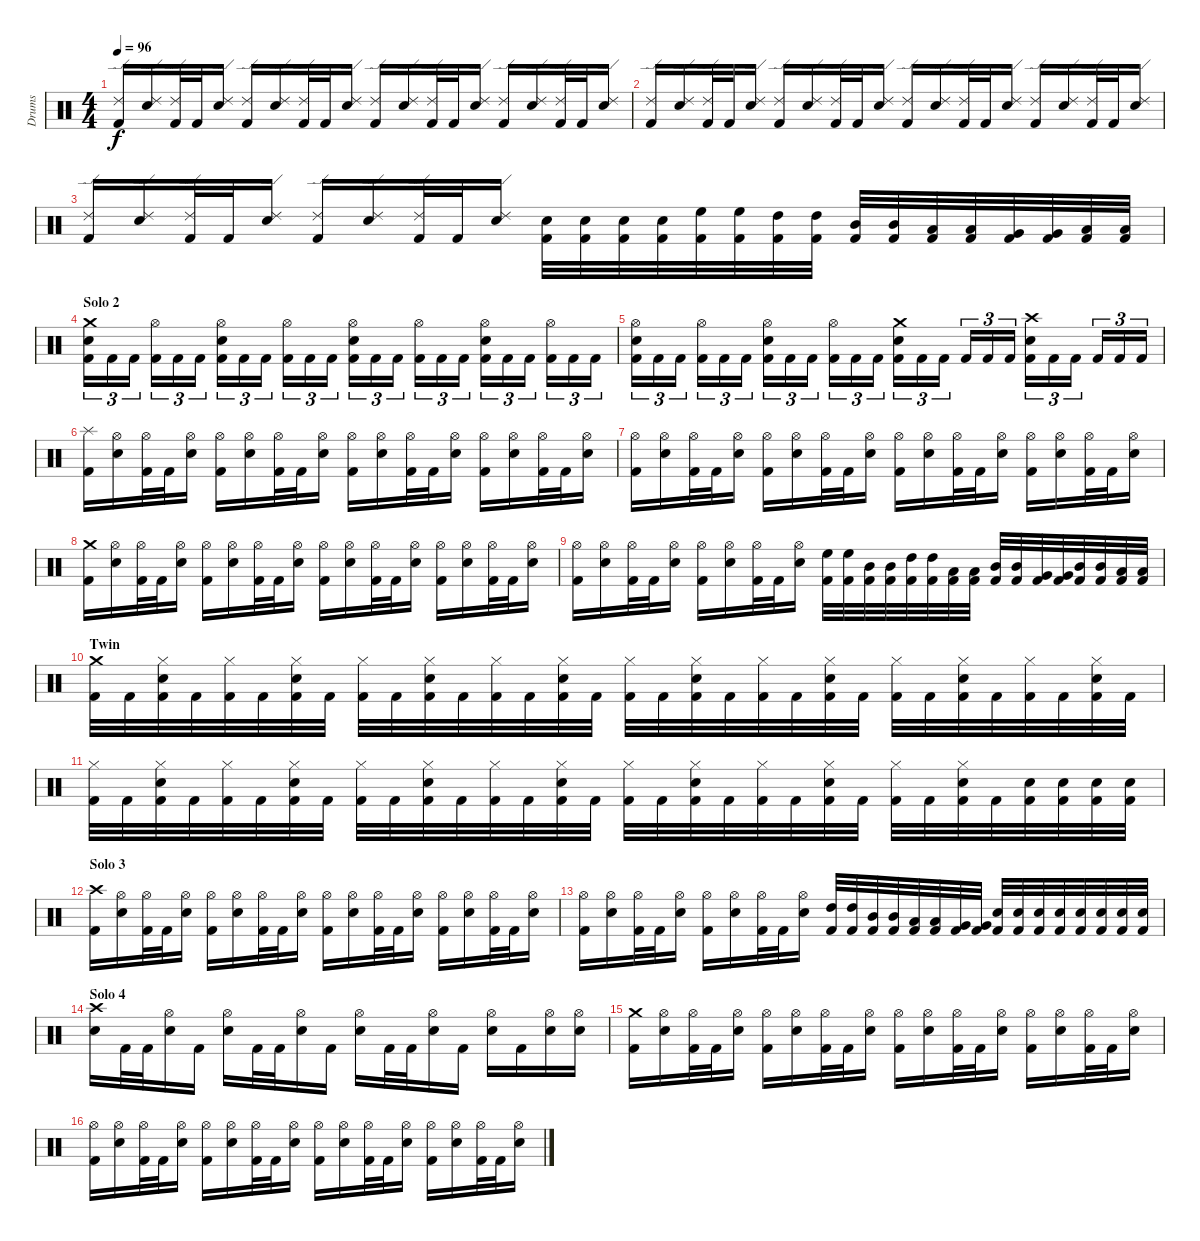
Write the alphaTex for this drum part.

\track ("Drums" "Drums") {instrument percussion}
\staff {score}
\articulation defaults
\ts (4 4)
\tempo 96
\clef neutral
\ks c
("Kick (hit) 2" "Ride (edge) 2").16{dy f} ("Snare (hit) 2" "Ride (edge) 2").16 ("Kick (hit) 2" "Ride (edge) 2").32 "Kick (hit) 2".32 ("Snare (hit) 2" "Ride (edge) 2").16 ("Kick (hit) 2" "Ride (edge) 2").16 ("Snare (hit) 2" "Ride (edge) 2").16 ("Kick (hit) 2" "Ride (edge) 2").32 "Kick (hit) 2".32 ("Snare (hit) 2" "Ride (edge) 2").16 ("Kick (hit) 2" "Ride (edge) 2").16 ("Snare (hit) 2" "Ride (edge) 2").16 ("Kick (hit) 2" "Ride (edge) 2").32 "Kick (hit) 2".32 ("Snare (hit) 2" "Ride (edge) 2").16 ("Kick (hit) 2" "Ride (edge) 2").16 ("Snare (hit) 2" "Ride (edge) 2").16 ("Kick (hit) 2" "Ride (edge) 2").32 "Kick (hit) 2".32 ("Snare (hit) 2" "Ride (edge) 2").16 |
("Kick (hit) 2" "Ride (edge) 2").16 ("Snare (hit) 2" "Ride (edge) 2").16 ("Kick (hit) 2" "Ride (edge) 2").32 "Kick (hit) 2".32 ("Snare (hit) 2" "Ride (edge) 2").16 ("Kick (hit) 2" "Ride (edge) 2").16 ("Snare (hit) 2" "Ride (edge) 2").16 ("Kick (hit) 2" "Ride (edge) 2").32 "Kick (hit) 2".32 ("Snare (hit) 2" "Ride (edge) 2").16 ("Kick (hit) 2" "Ride (edge) 2").16 ("Snare (hit) 2" "Ride (edge) 2").16 ("Kick (hit) 2" "Ride (edge) 2").32 "Kick (hit) 2".32 ("Snare (hit) 2" "Ride (edge) 2").16 ("Kick (hit) 2" "Ride (edge) 2").16 ("Snare (hit) 2" "Ride (edge) 2").16 ("Kick (hit) 2" "Ride (edge) 2").32 "Kick (hit) 2".32 ("Snare (hit) 2" "Ride (edge) 2").16 |
("Kick (hit) 2" "Ride (edge) 2").16 ("Snare (hit) 2" "Ride (edge) 2").16 ("Kick (hit) 2" "Ride (edge) 2").32 "Kick (hit) 2".32 ("Snare (hit) 2" "Ride (edge) 2").16 ("Kick (hit) 2" "Ride (edge) 2").16 ("Snare (hit) 2" "Ride (edge) 2").16 ("Kick (hit) 2" "Ride (edge) 2").32 "Kick (hit) 2".32 ("Snare (hit) 2" "Ride (edge) 2").16 ("Kick (hit) 2" "Snare (hit) 2").32 ("Kick (hit) 2" "Snare (hit) 2").32 ("Kick (hit) 2" "Snare (hit) 2").32 ("Kick (hit) 2" "Snare (hit) 2").32 ("Kick (hit) 2" "High Floor Tom (hit)").32 ("Kick (hit) 2" "High Floor Tom (hit)").32 ("Kick (hit) 2" "High Tom (hit)").32 ("Kick (hit) 2" "High Tom (hit)").32 ("Kick (hit) 2" "Mid Tom (hit)").32 ("Kick (hit) 2" "Mid Tom (hit)").32 ("Kick (hit) 2" "Low Tom (hit)").32 ("Kick (hit) 2" "Low Tom (hit)").32 ("Kick (hit) 2" "Very Low Tom (hit)").32 ("Kick (hit) 2" "Very Low Tom (hit)").32 ("Kick (hit) 2" "Low Floor Tom (hit)").32 ("Kick (hit) 2" "Low Floor Tom (hit)").32 |
\section ("" "Solo 2")
("Kick (hit) 2" "Snare (hit) 2" "Crash medium (hit)").16{tu (3 2)} "Kick (hit) 2".16{tu (3 2)} "Kick (hit) 2".16{tu (3 2)} ("Kick (hit) 2" "Hi-Hat (open)").16{tu (3 2)} "Kick (hit) 2".16{tu (3 2)} "Kick (hit) 2".16{tu (3 2)} ("Kick (hit) 2" "Snare (hit) 2" "Hi-Hat (open)").16{tu (3 2)} "Kick (hit) 2".16{tu (3 2)} "Kick (hit) 2".16{tu (3 2)} ("Kick (hit) 2" "Hi-Hat (open)").16{tu (3 2)} "Kick (hit) 2".16{tu (3 2)} "Kick (hit) 2".16{tu (3 2)} ("Kick (hit) 2" "Snare (hit) 2" "Hi-Hat (open)").16{tu (3 2)} "Kick (hit) 2".16{tu (3 2)} "Kick (hit) 2".16{tu (3 2)} ("Kick (hit) 2" "Hi-Hat (open)").16{tu (3 2)} "Kick (hit) 2".16{tu (3 2)} "Kick (hit) 2".16{tu (3 2)} ("Kick (hit) 2" "Snare (hit) 2" "Hi-Hat (open)").16{tu (3 2)} "Kick (hit) 2".16{tu (3 2)} "Kick (hit) 2".16{tu (3 2)} ("Kick (hit) 2" "Hi-Hat (open)").16{tu (3 2)} "Kick (hit) 2".16{tu (3 2)} "Kick (hit) 2".16{tu (3 2)} |
("Kick (hit) 2" "Snare (hit) 2" "Hi-Hat (open)").16{tu (3 2)} "Kick (hit) 2".16{tu (3 2)} "Kick (hit) 2".16{tu (3 2)} ("Kick (hit) 2" "Hi-Hat (open)").16{tu (3 2)} "Kick (hit) 2".16{tu (3 2)} "Kick (hit) 2".16{tu (3 2)} ("Kick (hit) 2" "Snare (hit) 2" "Hi-Hat (open)").16{tu (3 2)} "Kick (hit) 2".16{tu (3 2)} "Kick (hit) 2".16{tu (3 2)} ("Kick (hit) 2" "Hi-Hat (open)").16{tu (3 2)} "Kick (hit) 2".16{tu (3 2)} "Kick (hit) 2".16{tu (3 2)} ("Kick (hit) 2" "Snare (hit) 2" "Crash medium (hit)").16{tu (3 2)} "Kick (hit) 2".16{tu (3 2)} "Kick (hit) 2".16{tu (3 2)} "Kick (hit) 2".16{tu (3 2)} "Kick (hit) 2".16{tu (3 2)} "Kick (hit) 2".16{tu (3 2)} ("Kick (hit) 2" "Snare (hit) 2" "Crash high (hit)").16{tu (3 2)} "Kick (hit) 2".16{tu (3 2)} "Kick (hit) 2".16{tu (3 2)} "Kick (hit) 2".16{tu (3 2)} "Kick (hit) 2".16{tu (3 2)} "Kick (hit) 2".16{tu (3 2)} |
("Kick (hit) 2" "Splash (hit)").16 ("Snare (hit) 2" "Hi-Hat (open)").16 ("Kick (hit) 2" "Hi-Hat (open)").32 "Kick (hit) 2".32 ("Snare (hit) 2" "Hi-Hat (open)").16 ("Kick (hit) 2" "Hi-Hat (open)").16 ("Snare (hit) 2" "Hi-Hat (open)").16 ("Kick (hit) 2" "Hi-Hat (open)").32 "Kick (hit) 2".32 ("Snare (hit) 2" "Hi-Hat (open)").16 ("Kick (hit) 2" "Hi-Hat (open)").16 ("Snare (hit) 2" "Hi-Hat (open)").16 ("Kick (hit) 2" "Hi-Hat (open)").32 "Kick (hit) 2".32 ("Snare (hit) 2" "Hi-Hat (open)").16 ("Kick (hit) 2" "Hi-Hat (open)").16 ("Snare (hit) 2" "Hi-Hat (open)").16 ("Kick (hit) 2" "Hi-Hat (open)").32 "Kick (hit) 2".32 ("Snare (hit) 2" "Hi-Hat (open)").16 |
("Kick (hit) 2" "Hi-Hat (open)").16 ("Snare (hit) 2" "Hi-Hat (open)").16 ("Kick (hit) 2" "Hi-Hat (open)").32 "Kick (hit) 2".32 ("Snare (hit) 2" "Hi-Hat (open)").16 ("Kick (hit) 2" "Hi-Hat (open)").16 ("Snare (hit) 2" "Hi-Hat (open)").16 ("Kick (hit) 2" "Hi-Hat (open)").32 "Kick (hit) 2".32 ("Snare (hit) 2" "Hi-Hat (open)").16 ("Kick (hit) 2" "Hi-Hat (open)").16 ("Snare (hit) 2" "Hi-Hat (open)").16 ("Kick (hit) 2" "Hi-Hat (open)").32 "Kick (hit) 2".32 ("Snare (hit) 2" "Hi-Hat (open)").16 ("Kick (hit) 2" "Hi-Hat (open)").16 ("Snare (hit) 2" "Hi-Hat (open)").16 ("Kick (hit) 2" "Hi-Hat (open)").32 "Kick (hit) 2".32 ("Snare (hit) 2" "Hi-Hat (open)").16 |
("Kick (hit) 2" "Crash medium (hit)").16 ("Snare (hit) 2" "Hi-Hat (open)").16 ("Kick (hit) 2" "Hi-Hat (open)").32 "Kick (hit) 2".32 ("Snare (hit) 2" "Hi-Hat (open)").16 ("Kick (hit) 2" "Hi-Hat (open)").16 ("Snare (hit) 2" "Hi-Hat (open)").16 ("Kick (hit) 2" "Hi-Hat (open)").32 "Kick (hit) 2".32 ("Snare (hit) 2" "Hi-Hat (open)").16 ("Kick (hit) 2" "Hi-Hat (open)").16 ("Snare (hit) 2" "Hi-Hat (open)").16 ("Kick (hit) 2" "Hi-Hat (open)").32 "Kick (hit) 2".32 ("Snare (hit) 2" "Hi-Hat (open)").16 ("Kick (hit) 2" "Hi-Hat (open)").16 ("Snare (hit) 2" "Hi-Hat (open)").16 ("Kick (hit) 2" "Hi-Hat (open)").32 "Kick (hit) 2".32 ("Snare (hit) 2" "Hi-Hat (open)").16 |
("Kick (hit) 2" "Hi-Hat (open)").16 ("Snare (hit) 2" "Hi-Hat (open)").16 ("Kick (hit) 2" "Hi-Hat (open)").32 "Kick (hit) 2".32 ("Snare (hit) 2" "Hi-Hat (open)").16 ("Kick (hit) 2" "Hi-Hat (open)").16 ("Snare (hit) 2" "Hi-Hat (open)").16 ("Kick (hit) 2" "Hi-Hat (open)").32 "Kick (hit) 2".32 ("Snare (hit) 2" "Hi-Hat (open)").16 ("Kick (hit) 2" "High Floor Tom (hit)").32 ("Kick (hit) 2" "High Floor Tom (hit)").32 ("Kick (hit) 2" "Mid Tom (hit)").32 ("Kick (hit) 2" "Mid Tom (hit)").32 ("Kick (hit) 2" "High Tom (hit)").32 ("Kick (hit) 2" "High Tom (hit)").32 ("Kick (hit) 2" "Low Tom (hit)").32 ("Kick (hit) 2" "Low Tom (hit)").32 ("Kick (hit) 2" "Mid Tom (hit)").32 ("Kick (hit) 2" "Mid Tom (hit)").32 ("Kick (hit) 2" "Very Low Tom (hit)").32 ("Kick (hit) 2" "Very Low Tom (hit)").32 ("Kick (hit) 2" "Mid Tom (hit)").32 ("Kick (hit) 2" "Mid Tom (hit)").32 ("Kick (hit) 2" "Low Floor Tom (hit)").32 ("Kick (hit) 2" "Low Floor Tom (hit)").32 |
\section ("" "Twin")
("Kick (hit) 2" "Crash medium (hit)").32 "Kick (hit) 2".32 ("Kick (hit) 2" "Snare (hit) 2" "Hi-Hat (closed)").32 "Kick (hit) 2".32 ("Kick (hit) 2" "Hi-Hat (closed)").32 "Kick (hit) 2".32 ("Kick (hit) 2" "Snare (hit) 2" "Hi-Hat (closed)").32 "Kick (hit) 2".32 ("Kick (hit) 2" "Hi-Hat (closed)").32 "Kick (hit) 2".32 ("Kick (hit) 2" "Snare (hit) 2" "Hi-Hat (closed)").32 "Kick (hit) 2".32 ("Kick (hit) 2" "Hi-Hat (closed)").32 "Kick (hit) 2".32 ("Kick (hit) 2" "Snare (hit) 2" "Hi-Hat (closed)").32 "Kick (hit) 2".32 ("Kick (hit) 2" "Hi-Hat (closed)").32 "Kick (hit) 2".32 ("Kick (hit) 2" "Snare (hit) 2" "Hi-Hat (closed)").32 "Kick (hit) 2".32 ("Kick (hit) 2" "Hi-Hat (closed)").32 "Kick (hit) 2".32 ("Kick (hit) 2" "Snare (hit) 2" "Hi-Hat (closed)").32 "Kick (hit) 2".32 ("Kick (hit) 2" "Hi-Hat (closed)").32 "Kick (hit) 2".32 ("Kick (hit) 2" "Snare (hit) 2" "Hi-Hat (closed)").32 "Kick (hit) 2".32 ("Kick (hit) 2" "Hi-Hat (closed)").32 "Kick (hit) 2".32 ("Kick (hit) 2" "Snare (hit) 2" "Hi-Hat (closed)").32 "Kick (hit) 2".32 |
("Kick (hit) 2" "Hi-Hat (closed)").32 "Kick (hit) 2".32 ("Kick (hit) 2" "Snare (hit) 2" "Hi-Hat (closed)").32 "Kick (hit) 2".32 ("Kick (hit) 2" "Hi-Hat (closed)").32 "Kick (hit) 2".32 ("Kick (hit) 2" "Snare (hit) 2" "Hi-Hat (closed)").32 "Kick (hit) 2".32 ("Kick (hit) 2" "Hi-Hat (closed)").32 "Kick (hit) 2".32 ("Kick (hit) 2" "Snare (hit) 2" "Hi-Hat (closed)").32 "Kick (hit) 2".32 ("Kick (hit) 2" "Hi-Hat (closed)").32 "Kick (hit) 2".32 ("Kick (hit) 2" "Snare (hit) 2" "Hi-Hat (closed)").32 "Kick (hit) 2".32 ("Kick (hit) 2" "Hi-Hat (closed)").32 "Kick (hit) 2".32 ("Kick (hit) 2" "Snare (hit) 2" "Hi-Hat (closed)").32 "Kick (hit) 2".32 ("Kick (hit) 2" "Hi-Hat (closed)").32 "Kick (hit) 2".32 ("Kick (hit) 2" "Snare (hit) 2" "Hi-Hat (closed)").32 "Kick (hit) 2".32 ("Kick (hit) 2" "Hi-Hat (closed)").32 "Kick (hit) 2".32 ("Kick (hit) 2" "Snare (hit) 2" "Hi-Hat (closed)").32 "Kick (hit) 2".32 ("Kick (hit) 2" "Snare (hit) 2").32 ("Kick (hit) 2" "Snare (hit) 2").32 ("Kick (hit) 2" "Snare (hit) 2").32 ("Kick (hit) 2" "Snare (hit) 2").32 |
\section ("" "Solo 3")
("Kick (hit) 2" "Crash high (hit)").16 ("Snare (hit) 2" "Hi-Hat (open)").16 ("Kick (hit) 2" "Hi-Hat (open)").32 "Kick (hit) 2".32 ("Snare (hit) 2" "Hi-Hat (open)").16 ("Kick (hit) 2" "Hi-Hat (open)").16 ("Snare (hit) 2" "Hi-Hat (open)").16 ("Kick (hit) 2" "Hi-Hat (open)").32 "Kick (hit) 2".32 ("Snare (hit) 2" "Hi-Hat (open)").16 ("Kick (hit) 2" "Hi-Hat (open)").16 ("Snare (hit) 2" "Hi-Hat (open)").16 ("Kick (hit) 2" "Hi-Hat (open)").32 "Kick (hit) 2".32 ("Snare (hit) 2" "Hi-Hat (open)").16 ("Kick (hit) 2" "Hi-Hat (open)").16 ("Snare (hit) 2" "Hi-Hat (open)").16 ("Kick (hit) 2" "Hi-Hat (open)").32 "Kick (hit) 2".32 ("Snare (hit) 2" "Hi-Hat (open)").16 |
("Kick (hit) 2" "Hi-Hat (open)").16 ("Snare (hit) 2" "Hi-Hat (open)").16 ("Kick (hit) 2" "Hi-Hat (open)").32 "Kick (hit) 2".32 ("Snare (hit) 2" "Hi-Hat (open)").16 ("Kick (hit) 2" "Hi-Hat (open)").16 ("Snare (hit) 2" "Hi-Hat (open)").16 ("Kick (hit) 2" "Hi-Hat (open)").32 "Kick (hit) 2".32 ("Snare (hit) 2" "Hi-Hat (open)").16 ("Kick (hit) 2" "High Tom (hit)").32 ("Kick (hit) 2" "High Tom (hit)").32 ("Kick (hit) 2" "Mid Tom (hit)").32 ("Kick (hit) 2" "Mid Tom (hit)").32 ("Kick (hit) 2" "Low Tom (hit)").32 ("Kick (hit) 2" "Low Tom (hit)").32 ("Kick (hit) 2" "Very Low Tom (hit)").32 ("Kick (hit) 2" "Very Low Tom (hit)").32 ("Kick (hit) 2" "Snare (hit) 2").32 ("Kick (hit) 2" "Snare (hit) 2").32 ("Kick (hit) 2" "Snare (hit) 2").32 ("Kick (hit) 2" "Snare (hit) 2").32 ("Kick (hit) 2" "Snare (hit) 2").32 ("Kick (hit) 2" "Snare (hit) 2").32 ("Kick (hit) 2" "Snare (hit) 2").32 ("Kick (hit) 2" "Snare (hit) 2").32 |
\section ("" "Solo 4")
("Snare (hit) 2" "Crash high (hit)").16 "Kick (hit) 2".32 "Kick (hit) 2".32 ("Snare (hit) 2" "Hi-Hat (open)").16 "Kick (hit) 2".16 ("Snare (hit) 2" "Hi-Hat (open)").16 "Kick (hit) 2".32 "Kick (hit) 2".32 ("Snare (hit) 2" "Hi-Hat (open)").16 "Kick (hit) 2".16 ("Snare (hit) 2" "Hi-Hat (open)").16 "Kick (hit) 2".32 "Kick (hit) 2".32 ("Snare (hit) 2" "Hi-Hat (open)").16 "Kick (hit) 2".16 ("Snare (hit) 2" "Hi-Hat (open)").16 "Kick (hit) 2".16 ("Snare (hit) 2" "Hi-Hat (open)").16 ("Snare (hit) 2" "Hi-Hat (open)").16 |
("Kick (hit) 2" "Crash medium (hit)").16 ("Snare (hit) 2" "Hi-Hat (open)").16 ("Kick (hit) 2" "Hi-Hat (open)").32 "Kick (hit) 2".32 ("Snare (hit) 2" "Hi-Hat (open)").16 ("Kick (hit) 2" "Hi-Hat (open)").16 ("Snare (hit) 2" "Hi-Hat (open)").16 ("Kick (hit) 2" "Hi-Hat (open)").32 "Kick (hit) 2".32 ("Snare (hit) 2" "Hi-Hat (open)").16 ("Kick (hit) 2" "Hi-Hat (open)").16 ("Snare (hit) 2" "Hi-Hat (open)").16 ("Kick (hit) 2" "Hi-Hat (open)").32 "Kick (hit) 2".32 ("Snare (hit) 2" "Hi-Hat (open)").16 ("Kick (hit) 2" "Hi-Hat (open)").16 ("Snare (hit) 2" "Hi-Hat (open)").16 ("Kick (hit) 2" "Hi-Hat (open)").32 "Kick (hit) 2".32 ("Snare (hit) 2" "Hi-Hat (open)").16 |
\section ("" "")
("Kick (hit) 2" "Hi-Hat (open)").16 ("Snare (hit) 2" "Hi-Hat (open)").16 ("Kick (hit) 2" "Hi-Hat (open)").32 "Kick (hit) 2".32 ("Snare (hit) 2" "Hi-Hat (open)").16 ("Kick (hit) 2" "Hi-Hat (open)").16 ("Snare (hit) 2" "Hi-Hat (open)").16 ("Kick (hit) 2" "Hi-Hat (open)").32 "Kick (hit) 2".32 ("Snare (hit) 2" "Hi-Hat (open)").16 ("Kick (hit) 2" "Hi-Hat (open)").16 ("Snare (hit) 2" "Hi-Hat (open)").16 ("Kick (hit) 2" "Hi-Hat (open)").32 "Kick (hit) 2".32 ("Snare (hit) 2" "Hi-Hat (open)").16 ("Kick (hit) 2" "Hi-Hat (open)").16 ("Snare (hit) 2" "Hi-Hat (open)").16 ("Kick (hit) 2" "Hi-Hat (open)").32 "Kick (hit) 2".32 ("Snare (hit) 2" "Hi-Hat (open)").16
